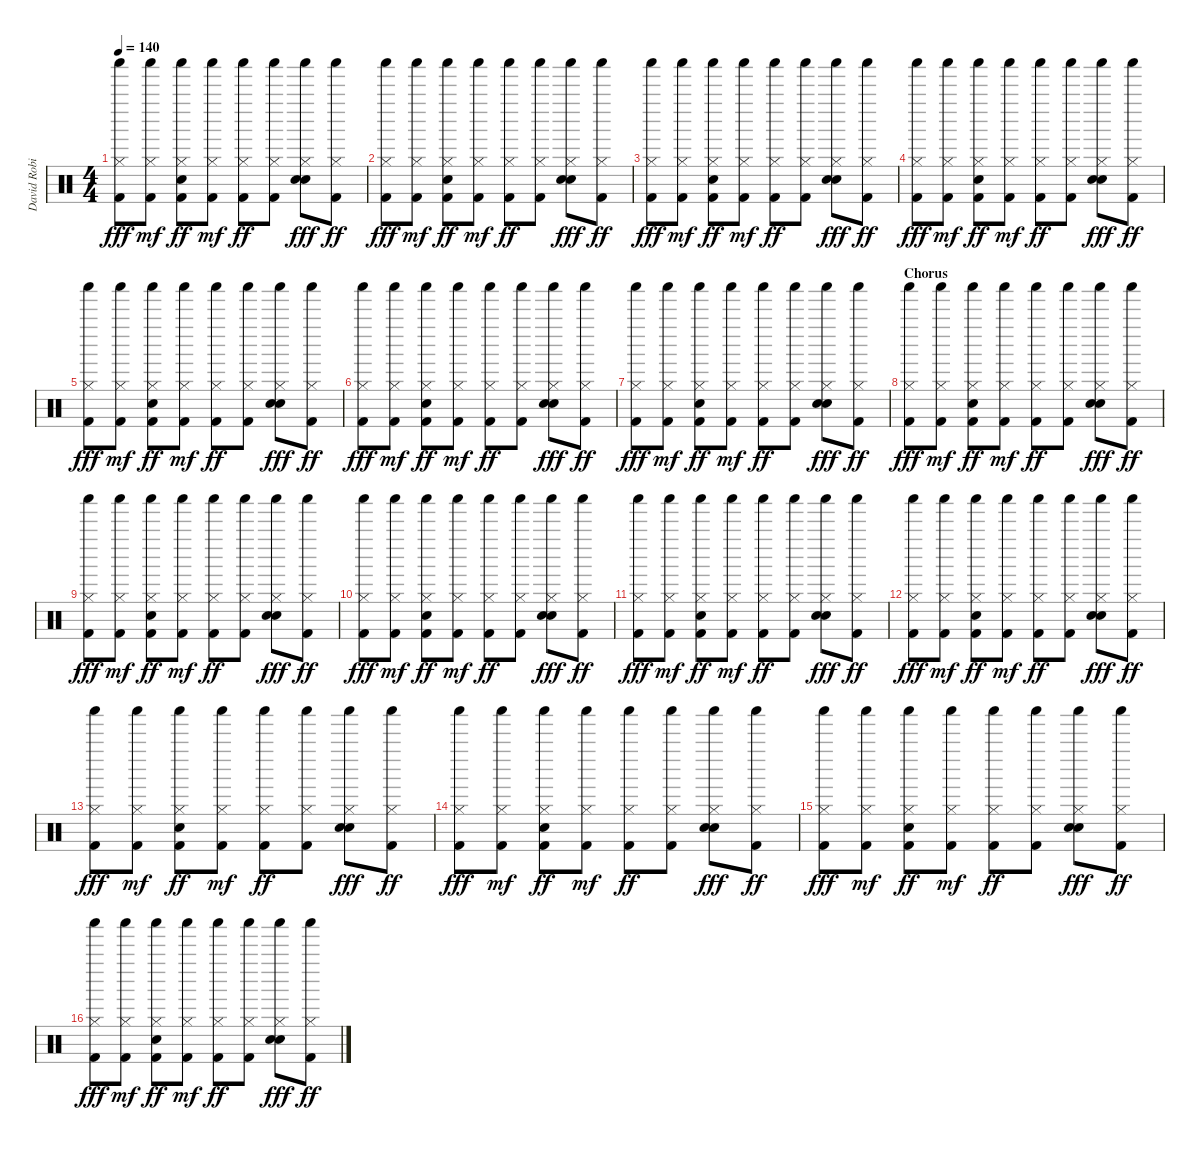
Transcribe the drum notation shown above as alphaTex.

\track ("David Robinson" "David Robi") {instrument percussion}
\staff {score}
\articulation defaults
\ts (4 4)
\tempo 140
\clef neutral
\ks c
("Shaker (hit)" "Hi-Hat (closed)" "Kick (hit) 2").8{dy fff} ("Shaker (hit)" "Hi-Hat (closed)" "Kick (hit) 2").8{dy mf} ("Shaker (hit)" "Hi-Hat (closed)" "Electric Snare (hit)" "Kick (hit) 2").8{dy ff} ("Shaker (hit)" "Hi-Hat (closed)" "Kick (hit) 2").8{dy mf} ("Shaker (hit)" "Hi-Hat (closed)" "Kick (hit) 2").8{dy ff} ("Shaker (hit)" "Hi-Hat (closed)" "Kick (hit) 2").8 ("Shaker (hit)" "Hi-Hat (closed)" "Electric Snare (hit)" "Snare (hit) 2").8{dy fff} ("Shaker (hit)" "Hi-Hat (closed)" "Kick (hit) 2").8{dy ff} |
("Shaker (hit)" "Hi-Hat (closed)" "Kick (hit) 2").8{dy fff} ("Shaker (hit)" "Hi-Hat (closed)" "Kick (hit) 2").8{dy mf} ("Shaker (hit)" "Hi-Hat (closed)" "Electric Snare (hit)" "Kick (hit) 2").8{dy ff} ("Shaker (hit)" "Hi-Hat (closed)" "Kick (hit) 2").8{dy mf} ("Shaker (hit)" "Hi-Hat (closed)" "Kick (hit) 2").8{dy ff} ("Shaker (hit)" "Hi-Hat (closed)" "Kick (hit) 2").8 ("Shaker (hit)" "Hi-Hat (closed)" "Electric Snare (hit)" "Snare (hit) 2").8{dy fff} ("Shaker (hit)" "Hi-Hat (closed)" "Kick (hit) 2").8{dy ff} |
("Shaker (hit)" "Hi-Hat (closed)" "Kick (hit) 2").8{dy fff} ("Shaker (hit)" "Hi-Hat (closed)" "Kick (hit) 2").8{dy mf} ("Shaker (hit)" "Hi-Hat (closed)" "Electric Snare (hit)" "Kick (hit) 2").8{dy ff} ("Shaker (hit)" "Hi-Hat (closed)" "Kick (hit) 2").8{dy mf} ("Shaker (hit)" "Hi-Hat (closed)" "Kick (hit) 2").8{dy ff} ("Shaker (hit)" "Hi-Hat (closed)" "Kick (hit) 2").8 ("Shaker (hit)" "Hi-Hat (closed)" "Electric Snare (hit)" "Snare (hit) 2").8{dy fff} ("Shaker (hit)" "Hi-Hat (closed)" "Kick (hit) 2").8{dy ff} |
("Shaker (hit)" "Hi-Hat (closed)" "Kick (hit) 2").8{dy fff} ("Shaker (hit)" "Hi-Hat (closed)" "Kick (hit) 2").8{dy mf} ("Shaker (hit)" "Hi-Hat (closed)" "Electric Snare (hit)" "Kick (hit) 2").8{dy ff} ("Shaker (hit)" "Hi-Hat (closed)" "Kick (hit) 2").8{dy mf} ("Shaker (hit)" "Hi-Hat (closed)" "Kick (hit) 2").8{dy ff} ("Shaker (hit)" "Hi-Hat (closed)" "Kick (hit) 2").8 ("Shaker (hit)" "Hi-Hat (closed)" "Electric Snare (hit)" "Snare (hit) 2").8{dy fff} ("Shaker (hit)" "Hi-Hat (closed)" "Kick (hit) 2").8{dy ff} |
("Shaker (hit)" "Hi-Hat (closed)" "Kick (hit) 2").8{dy fff} ("Shaker (hit)" "Hi-Hat (closed)" "Kick (hit) 2").8{dy mf} ("Shaker (hit)" "Hi-Hat (closed)" "Electric Snare (hit)" "Kick (hit) 2").8{dy ff} ("Shaker (hit)" "Hi-Hat (closed)" "Kick (hit) 2").8{dy mf} ("Shaker (hit)" "Hi-Hat (closed)" "Kick (hit) 2").8{dy ff} ("Shaker (hit)" "Hi-Hat (closed)" "Kick (hit) 2").8 ("Shaker (hit)" "Hi-Hat (closed)" "Electric Snare (hit)" "Snare (hit) 2").8{dy fff} ("Shaker (hit)" "Hi-Hat (closed)" "Kick (hit) 2").8{dy ff} |
("Shaker (hit)" "Hi-Hat (closed)" "Kick (hit) 2").8{dy fff} ("Shaker (hit)" "Hi-Hat (closed)" "Kick (hit) 2").8{dy mf} ("Shaker (hit)" "Hi-Hat (closed)" "Electric Snare (hit)" "Kick (hit) 2").8{dy ff} ("Shaker (hit)" "Hi-Hat (closed)" "Kick (hit) 2").8{dy mf} ("Shaker (hit)" "Hi-Hat (closed)" "Kick (hit) 2").8{dy ff} ("Shaker (hit)" "Hi-Hat (closed)" "Kick (hit) 2").8 ("Shaker (hit)" "Hi-Hat (closed)" "Electric Snare (hit)" "Snare (hit) 2").8{dy fff} ("Shaker (hit)" "Hi-Hat (closed)" "Kick (hit) 2").8{dy ff} |
("Shaker (hit)" "Hi-Hat (closed)" "Kick (hit) 2").8{dy fff} ("Shaker (hit)" "Hi-Hat (closed)" "Kick (hit) 2").8{dy mf} ("Shaker (hit)" "Hi-Hat (closed)" "Electric Snare (hit)" "Kick (hit) 2").8{dy ff} ("Shaker (hit)" "Hi-Hat (closed)" "Kick (hit) 2").8{dy mf} ("Shaker (hit)" "Hi-Hat (closed)" "Kick (hit) 2").8{dy ff} ("Shaker (hit)" "Hi-Hat (closed)" "Kick (hit) 2").8 ("Shaker (hit)" "Hi-Hat (closed)" "Electric Snare (hit)" "Snare (hit) 2").8{dy fff} ("Shaker (hit)" "Hi-Hat (closed)" "Kick (hit) 2").8{dy ff} |
\section ("" "Chorus")
("Shaker (hit)" "Hi-Hat (closed)" "Kick (hit) 2").8{dy fff} ("Shaker (hit)" "Hi-Hat (closed)" "Kick (hit) 2").8{dy mf} ("Shaker (hit)" "Hi-Hat (closed)" "Electric Snare (hit)" "Kick (hit) 2").8{dy ff} ("Shaker (hit)" "Hi-Hat (closed)" "Kick (hit) 2").8{dy mf} ("Shaker (hit)" "Hi-Hat (closed)" "Kick (hit) 2").8{dy ff} ("Shaker (hit)" "Hi-Hat (closed)" "Kick (hit) 2").8 ("Shaker (hit)" "Hi-Hat (closed)" "Electric Snare (hit)" "Snare (hit) 2").8{dy fff} ("Shaker (hit)" "Hi-Hat (closed)" "Kick (hit) 2").8{dy ff} |
("Shaker (hit)" "Hi-Hat (closed)" "Kick (hit) 2").8{dy fff} ("Shaker (hit)" "Hi-Hat (closed)" "Kick (hit) 2").8{dy mf} ("Shaker (hit)" "Hi-Hat (closed)" "Electric Snare (hit)" "Kick (hit) 2").8{dy ff} ("Shaker (hit)" "Hi-Hat (closed)" "Kick (hit) 2").8{dy mf} ("Shaker (hit)" "Hi-Hat (closed)" "Kick (hit) 2").8{dy ff} ("Shaker (hit)" "Hi-Hat (closed)" "Kick (hit) 2").8 ("Shaker (hit)" "Hi-Hat (closed)" "Electric Snare (hit)" "Snare (hit) 2").8{dy fff} ("Shaker (hit)" "Hi-Hat (closed)" "Kick (hit) 2").8{dy ff} |
("Shaker (hit)" "Hi-Hat (closed)" "Kick (hit) 2").8{dy fff} ("Shaker (hit)" "Hi-Hat (closed)" "Kick (hit) 2").8{dy mf} ("Shaker (hit)" "Hi-Hat (closed)" "Electric Snare (hit)" "Kick (hit) 2").8{dy ff} ("Shaker (hit)" "Hi-Hat (closed)" "Kick (hit) 2").8{dy mf} ("Shaker (hit)" "Hi-Hat (closed)" "Kick (hit) 2").8{dy ff} ("Shaker (hit)" "Hi-Hat (closed)" "Kick (hit) 2").8 ("Shaker (hit)" "Hi-Hat (closed)" "Electric Snare (hit)" "Snare (hit) 2").8{dy fff} ("Shaker (hit)" "Hi-Hat (closed)" "Kick (hit) 2").8{dy ff} |
("Shaker (hit)" "Hi-Hat (closed)" "Kick (hit) 2").8{dy fff} ("Shaker (hit)" "Hi-Hat (closed)" "Kick (hit) 2").8{dy mf} ("Shaker (hit)" "Hi-Hat (closed)" "Electric Snare (hit)" "Kick (hit) 2").8{dy ff} ("Shaker (hit)" "Hi-Hat (closed)" "Kick (hit) 2").8{dy mf} ("Shaker (hit)" "Hi-Hat (closed)" "Kick (hit) 2").8{dy ff} ("Shaker (hit)" "Hi-Hat (closed)" "Kick (hit) 2").8 ("Shaker (hit)" "Hi-Hat (closed)" "Electric Snare (hit)" "Snare (hit) 2").8{dy fff} ("Shaker (hit)" "Hi-Hat (closed)" "Kick (hit) 2").8{dy ff} |
("Shaker (hit)" "Hi-Hat (closed)" "Kick (hit) 2").8{dy fff} ("Shaker (hit)" "Hi-Hat (closed)" "Kick (hit) 2").8{dy mf} ("Shaker (hit)" "Hi-Hat (closed)" "Electric Snare (hit)" "Kick (hit) 2").8{dy ff} ("Shaker (hit)" "Hi-Hat (closed)" "Kick (hit) 2").8{dy mf} ("Shaker (hit)" "Hi-Hat (closed)" "Kick (hit) 2").8{dy ff} ("Shaker (hit)" "Hi-Hat (closed)" "Kick (hit) 2").8 ("Shaker (hit)" "Hi-Hat (closed)" "Electric Snare (hit)" "Snare (hit) 2").8{dy fff} ("Shaker (hit)" "Hi-Hat (closed)" "Kick (hit) 2").8{dy ff} |
("Shaker (hit)" "Hi-Hat (closed)" "Kick (hit) 2").8{dy fff} ("Shaker (hit)" "Hi-Hat (closed)" "Kick (hit) 2").8{dy mf} ("Shaker (hit)" "Hi-Hat (closed)" "Electric Snare (hit)" "Kick (hit) 2").8{dy ff} ("Shaker (hit)" "Hi-Hat (closed)" "Kick (hit) 2").8{dy mf} ("Shaker (hit)" "Hi-Hat (closed)" "Kick (hit) 2").8{dy ff} ("Shaker (hit)" "Hi-Hat (closed)" "Kick (hit) 2").8 ("Shaker (hit)" "Hi-Hat (closed)" "Electric Snare (hit)" "Snare (hit) 2").8{dy fff} ("Shaker (hit)" "Hi-Hat (closed)" "Kick (hit) 2").8{dy ff} |
("Shaker (hit)" "Hi-Hat (closed)" "Kick (hit) 2").8{dy fff} ("Shaker (hit)" "Hi-Hat (closed)" "Kick (hit) 2").8{dy mf} ("Shaker (hit)" "Hi-Hat (closed)" "Electric Snare (hit)" "Kick (hit) 2").8{dy ff} ("Shaker (hit)" "Hi-Hat (closed)" "Kick (hit) 2").8{dy mf} ("Shaker (hit)" "Hi-Hat (closed)" "Kick (hit) 2").8{dy ff} ("Shaker (hit)" "Hi-Hat (closed)" "Kick (hit) 2").8 ("Shaker (hit)" "Hi-Hat (closed)" "Electric Snare (hit)" "Snare (hit) 2").8{dy fff} ("Shaker (hit)" "Hi-Hat (closed)" "Kick (hit) 2").8{dy ff} |
("Shaker (hit)" "Hi-Hat (closed)" "Kick (hit) 2").8{dy fff} ("Shaker (hit)" "Hi-Hat (closed)" "Kick (hit) 2").8{dy mf} ("Shaker (hit)" "Hi-Hat (closed)" "Electric Snare (hit)" "Kick (hit) 2").8{dy ff} ("Shaker (hit)" "Hi-Hat (closed)" "Kick (hit) 2").8{dy mf} ("Shaker (hit)" "Hi-Hat (closed)" "Kick (hit) 2").8{dy ff} ("Shaker (hit)" "Hi-Hat (closed)" "Kick (hit) 2").8 ("Shaker (hit)" "Hi-Hat (closed)" "Electric Snare (hit)" "Snare (hit) 2").8{dy fff} ("Shaker (hit)" "Hi-Hat (closed)" "Kick (hit) 2").8{dy ff} |
("Shaker (hit)" "Hi-Hat (closed)" "Kick (hit) 2").8{dy fff} ("Shaker (hit)" "Hi-Hat (closed)" "Kick (hit) 2").8{dy mf} ("Shaker (hit)" "Hi-Hat (closed)" "Electric Snare (hit)" "Kick (hit) 2").8{dy ff} ("Shaker (hit)" "Hi-Hat (closed)" "Kick (hit) 2").8{dy mf} ("Shaker (hit)" "Hi-Hat (closed)" "Kick (hit) 2").8{dy ff} ("Shaker (hit)" "Hi-Hat (closed)" "Kick (hit) 2").8 ("Shaker (hit)" "Hi-Hat (closed)" "Electric Snare (hit)" "Snare (hit) 2").8{dy fff} ("Shaker (hit)" "Hi-Hat (closed)" "Kick (hit) 2").8{dy ff}
